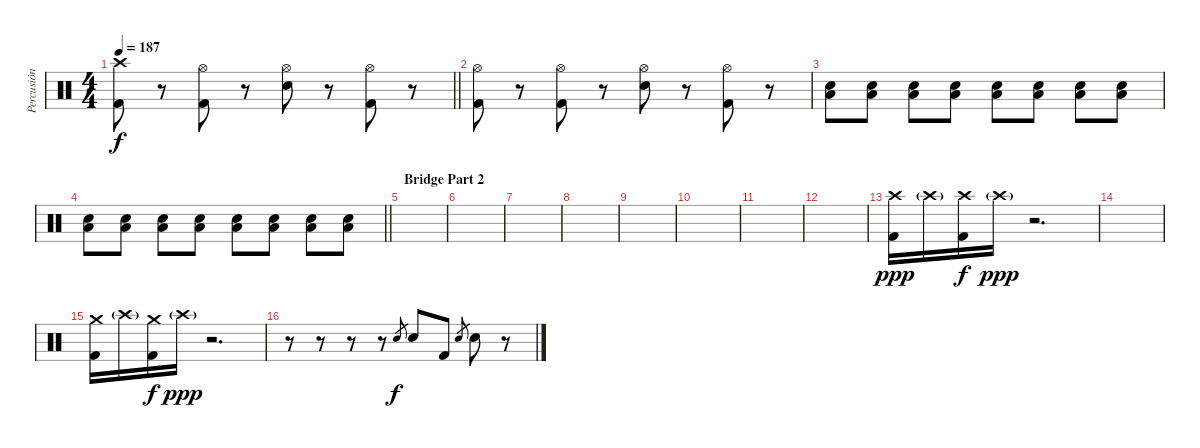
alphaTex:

\track ("Percusión" "Percusión") {instrument percussion}
\staff {score}
\articulation defaults
\ts (4 4)
\tempo 187
\clef neutral
\barLineRight lightlight
\ks c
("Crash high (hit)" "Kick (hit) 2").8{dy f} r.8 ("Hi-Hat (open)" "Kick (hit) 2").8 r.8 ("Hi-Hat (open)" "Snare (hit) 2").8 r.8 ("Hi-Hat (open)" "Kick (hit) 2").8 r.8 |
("Hi-Hat (open)" "Kick (hit) 2").8 r.8 ("Hi-Hat (open)" "Kick (hit) 2").8 r.8 ("Hi-Hat (open)" "Snare (hit) 2").8 r.8 ("Hi-Hat (open)" "Kick (hit) 2").8 r.8{volume 6} |
("Snare (hit) 2" "Low Tom (hit)").8{volume 15} ("Snare (hit) 2" "Low Tom (hit)").8 ("Snare (hit) 2" "Low Tom (hit)").8 ("Snare (hit) 2" "Low Tom (hit)").8 ("Snare (hit) 2" "Low Tom (hit)").8 ("Snare (hit) 2" "Low Tom (hit)").8 ("Snare (hit) 2" "Low Tom (hit)").8 ("Snare (hit) 2" "Low Tom (hit)").8 |
\barLineRight lightlight
("Snare (hit) 2" "Low Tom (hit)").8 ("Snare (hit) 2" "Low Tom (hit)").8 ("Snare (hit) 2" "Low Tom (hit)").8 ("Snare (hit) 2" "Low Tom (hit)").8 ("Snare (hit) 2" "Low Tom (hit)").8 ("Snare (hit) 2" "Low Tom (hit)").8 ("Snare (hit) 2" "Low Tom (hit)").8 ("Snare (hit) 2" "Low Tom (hit)").8 |
\section ("" "Bridge Part 2")
|
|
|
|
|
|
|
|
("Crash high (hit)" "Kick (hit) 2").16{dy ppp} "Crash high (hit)"{g}.16 ("Crash high (hit)" "Kick (hit) 2").16{dy f} "Crash high (hit)"{g}.16{dy ppp} r.2{d} |
|
("Crash medium (hit)" "Kick (hit) 2").16 "Crash high (hit)"{g}.16 ("Crash medium (hit)" "Kick (hit) 2").16{dy f} "Crash high (hit)"{g}.16{dy ppp} r.2{d} |
r.8 r.8 r.8 r.8 "Snare (hit) 2".8{gr dy f} "Snare (hit) 2".8 "Kick (hit) 2".8 "Snare (hit) 2".8{gr} "Snare (hit) 2".8 r.8
